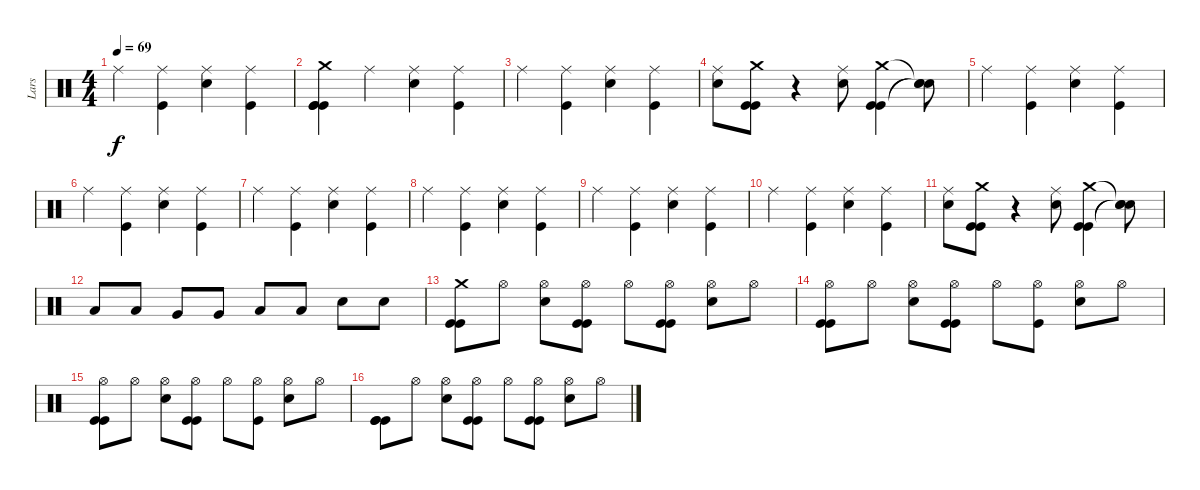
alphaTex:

\track ("Lars" "Lars") {instrument percussion}
\staff {score}
\articulation defaults
\ts (4 4)
\tempo 69
\clef neutral
\ks c "Ride (middle)".4{dy f}
("Ride (middle)" "Kick (hit)").4 ("Ride (middle)" "Electric Snare (hit)").4 ("Ride (middle)" "Kick (hit)").4 |
("Kick (hit)" "Kick (hit)" "Kick (hit)" "Crash medium (hit)").4 "Ride (middle)".4 ("Ride (middle)" "Electric Snare (hit)").4 ("Ride (middle)" "Kick (hit)").4 |
"Ride (middle)".4 ("Ride (middle)" "Kick (hit)").4 ("Ride (middle)" "Electric Snare (hit)").4 ("Ride (middle)" "Kick (hit)").4 |
("Ride (middle)" "Electric Snare (hit)").8 ("Kick (hit)" "Kick (hit)" "Crash medium (hit)").8 r.4 ("Ride (middle)" "Electric Snare (hit)").8 ("Kick (hit)" "Kick (hit)" "Crash medium (hit)").4 ("Snare (hit)"{t} "Snare (hit)"{t} "Snare (hit)"{t}).8 |
"Ride (middle)".4 ("Ride (middle)" "Kick (hit)").4 ("Ride (middle)" "Electric Snare (hit)").4 ("Ride (middle)" "Kick (hit)").4 |
"Ride (middle)".4 ("Ride (middle)" "Kick (hit)").4 ("Ride (middle)" "Electric Snare (hit)").4 ("Ride (middle)" "Kick (hit)").4 |
"Ride (middle)".4 ("Ride (middle)" "Kick (hit)").4 ("Ride (middle)" "Electric Snare (hit)").4 ("Ride (middle)" "Kick (hit)").4 |
"Ride (middle)".4 ("Ride (middle)" "Kick (hit)").4 ("Ride (middle)" "Electric Snare (hit)").4 ("Ride (middle)" "Kick (hit)").4 |
"Ride (middle)".4 ("Ride (middle)" "Kick (hit)").4 ("Ride (middle)" "Electric Snare (hit)").4 ("Ride (middle)" "Kick (hit)").4 |
"Ride (middle)".4 ("Ride (middle)" "Kick (hit)").4 ("Ride (middle)" "Electric Snare (hit)").4 ("Ride (middle)" "Kick (hit)").4 |
("Ride (middle)" "Electric Snare (hit)").8 ("Kick (hit)" "Kick (hit)" "Crash medium (hit)").8 r.4 ("Ride (middle)" "Electric Snare (hit)").8 ("Kick (hit)" "Kick (hit)" "Crash medium (hit)").4 ("Snare (hit)"{t} "Snare (hit)"{t} "Snare (hit)"{t}).8 |
"Low Tom (hit)".8 "Low Tom (hit)".8 "Very Low Tom (hit)".8 "Very Low Tom (hit)".8 "Low Floor Tom (hit)".8 "Low Floor Tom (hit)".8 "Electric Snare (hit)".8 "Electric Snare (hit)".8 |
("Kick (hit)" "Kick (hit)" "Crash medium (hit)").8 "Hi-Hat (open)".8 ("Hi-Hat (open)" "Electric Snare (hit)").8 ("Hi-Hat (open)" "Kick (hit)" "Kick (hit)").8 "Hi-Hat (open)".8 ("Hi-Hat (open)" "Kick (hit)" "Kick (hit)").8 ("Hi-Hat (open)" "Electric Snare (hit)").8 "Hi-Hat (open)".8 |
("Hi-Hat (open)" "Kick (hit)" "Kick (hit)").8 "Hi-Hat (open)".8 ("Hi-Hat (open)" "Electric Snare (hit)").8 ("Hi-Hat (open)" "Kick (hit)" "Kick (hit)").8 "Hi-Hat (open)".8 ("Hi-Hat (open)" "Kick (hit)").8 ("Hi-Hat (open)" "Electric Snare (hit)").8 "Hi-Hat (open)".8 |
("Hi-Hat (open)" "Kick (hit)" "Kick (hit)").8 "Hi-Hat (open)".8 ("Hi-Hat (open)" "Electric Snare (hit)").8 ("Hi-Hat (open)" "Kick (hit)" "Kick (hit)").8 "Hi-Hat (open)".8 ("Hi-Hat (open)" "Kick (hit)").8 ("Hi-Hat (open)" "Electric Snare (hit)").8 "Hi-Hat (open)".8 |
("Kick (hit)" "Kick (hit)" "Kick (hit)").8 "Hi-Hat (open)".8 ("Hi-Hat (open)" "Electric Snare (hit)").8 ("Hi-Hat (open)" "Kick (hit)" "Kick (hit)").8 "Hi-Hat (open)".8 ("Hi-Hat (open)" "Kick (hit)" "Kick (hit)").8 ("Hi-Hat (open)" "Electric Snare (hit)").8 "Hi-Hat (open)".8
